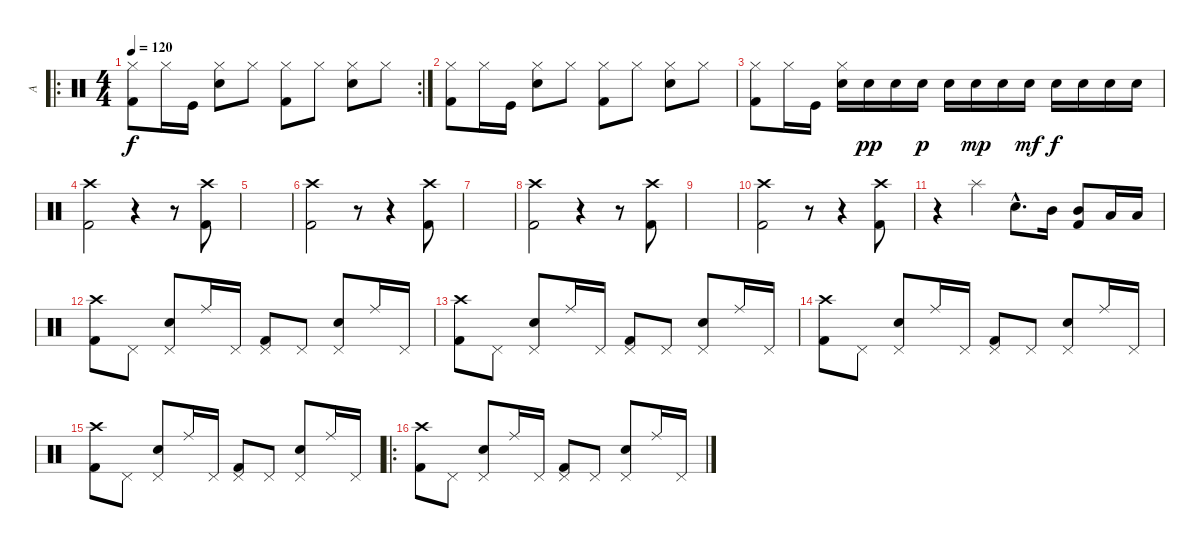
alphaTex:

\track ("A" "A") {instrument percussion}
\staff {score}
\articulation defaults
\ro
\rc 2
\ts (4 4)
\tempo 120
\clef neutral
\ks c
("Hi-Hat (closed)" "Kick (hit) 2").8{dy f} "Hi-Hat (closed)".16 "Kick (hit)".16 ("Hi-Hat (closed)" "Snare (hit) 2").8 "Hi-Hat (closed)".8 ("Hi-Hat (closed)" "Kick (hit) 2").8 "Hi-Hat (closed)".8 ("Hi-Hat (closed)" "Snare (hit) 2").8 "Hi-Hat (closed)".8 |
("Hi-Hat (closed)" "Kick (hit) 2").8 "Hi-Hat (closed)".16 "Kick (hit)".16 ("Hi-Hat (closed)" "Snare (hit) 2").8 "Hi-Hat (closed)".8 ("Hi-Hat (closed)" "Kick (hit) 2").8 "Hi-Hat (closed)".8 ("Hi-Hat (closed)" "Snare (hit) 2").8 "Hi-Hat (closed)".8 |
("Hi-Hat (closed)" "Kick (hit) 2").8 "Hi-Hat (closed)".16 "Kick (hit)".16 ("Hi-Hat (closed)" "Snare (hit) 2").16 "Snare (hit) 2".16{dy pp} "Snare (hit) 2".16 "Snare (hit) 2".16{dy p} "Snare (hit) 2".16 "Snare (hit) 2".16{dy mp} "Snare (hit) 2".16 "Snare (hit) 2".16{dy mf} "Snare (hit) 2".16{dy f} "Snare (hit) 2".16 "Snare (hit) 2".16 "Snare (hit) 2".16 |
("Crash high (hit)" "Kick (hit) 2").2 r.4 r.8 ("Crash high (hit)" "Kick (hit) 2").8 |
|
("Crash high (hit)" "Kick (hit) 2").2 r.8 r.4 ("Crash high (hit)" "Kick (hit) 2").8 |
|
("Crash high (hit)" "Kick (hit) 2").2 r.4 r.8 ("Crash high (hit)" "Kick (hit) 2").8 |
|
("Crash high (hit)" "Kick (hit) 2").2 r.8 r.4 ("Crash high (hit)" "Kick (hit) 2").8 |
r.4 "Splash (hit)".4 "Snare (hit) 2"{hac}.8{d} "Mid Tom (hit)".16 ("Kick (hit) 2" "Mid Tom (hit)").8 "Low Tom (hit)".16 "Low Tom (hit)".16 |
("Crash high (hit)" "Kick (hit) 2").8 "Pedal Hi-Hat (hit)".8 ("Pedal Hi-Hat (hit)" "Snare (hit) 2").8 "Ride (middle)".16 "Pedal Hi-Hat (hit)".16 ("Pedal Hi-Hat (hit)" "Kick (hit) 2").8 "Pedal Hi-Hat (hit)".8 ("Pedal Hi-Hat (hit)" "Snare (hit) 2").8 "Ride (middle)".16 "Pedal Hi-Hat (hit)".16 |
("Crash high (hit)" "Kick (hit) 2").8 "Pedal Hi-Hat (hit)".8 ("Pedal Hi-Hat (hit)" "Snare (hit) 2").8 "Ride (middle)".16 "Pedal Hi-Hat (hit)".16 ("Pedal Hi-Hat (hit)" "Kick (hit) 2").8 "Pedal Hi-Hat (hit)".8 ("Pedal Hi-Hat (hit)" "Snare (hit) 2").8 "Ride (middle)".16 "Pedal Hi-Hat (hit)".16 |
("Crash high (hit)" "Kick (hit) 2").8 "Pedal Hi-Hat (hit)".8 ("Pedal Hi-Hat (hit)" "Snare (hit) 2").8 "Ride (middle)".16 "Pedal Hi-Hat (hit)".16 ("Pedal Hi-Hat (hit)" "Kick (hit) 2").8 "Pedal Hi-Hat (hit)".8 ("Pedal Hi-Hat (hit)" "Snare (hit) 2").8 "Ride (middle)".16 "Pedal Hi-Hat (hit)".16 |
("Crash high (hit)" "Kick (hit) 2").8 "Pedal Hi-Hat (hit)".8 ("Pedal Hi-Hat (hit)" "Snare (hit) 2").8 "Ride (middle)".16 "Pedal Hi-Hat (hit)".16 ("Pedal Hi-Hat (hit)" "Kick (hit) 2").8 "Pedal Hi-Hat (hit)".8 ("Pedal Hi-Hat (hit)" "Snare (hit) 2").8 "Ride (middle)".16 "Pedal Hi-Hat (hit)".16 |
\ro
("Crash high (hit)" "Kick (hit) 2").8 "Pedal Hi-Hat (hit)".8 ("Pedal Hi-Hat (hit)" "Snare (hit) 2").8 "Ride (middle)".16 "Pedal Hi-Hat (hit)".16 ("Pedal Hi-Hat (hit)" "Kick (hit) 2").8 "Pedal Hi-Hat (hit)".8 ("Pedal Hi-Hat (hit)" "Snare (hit) 2").8 "Ride (middle)".16 "Pedal Hi-Hat (hit)".16
